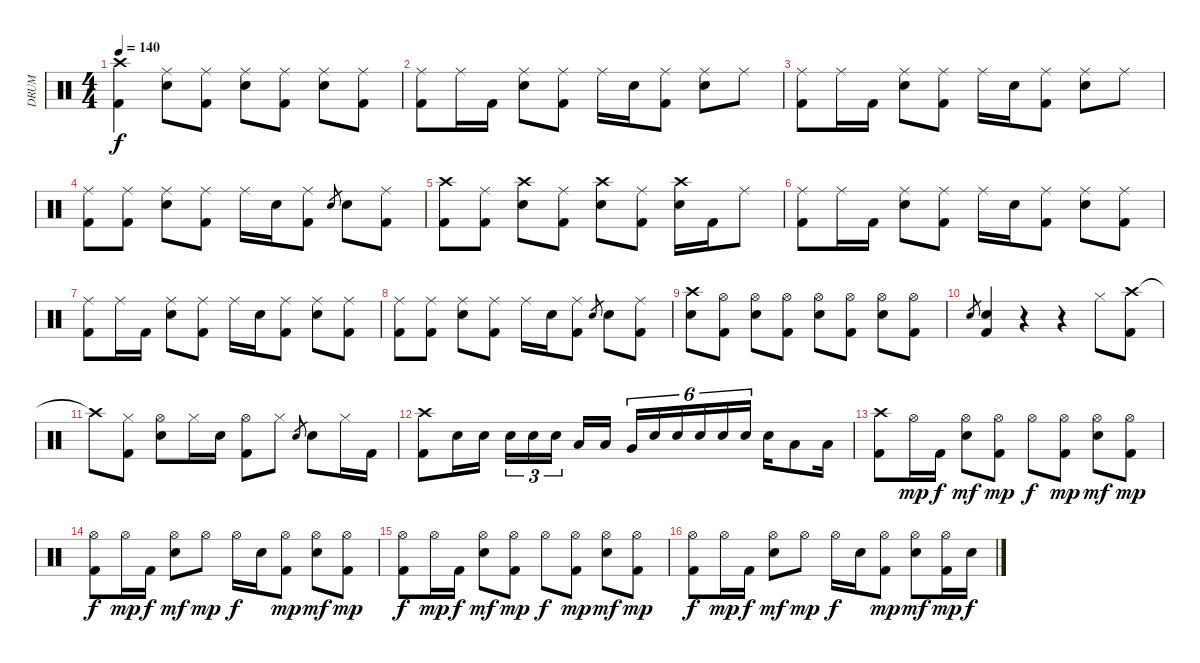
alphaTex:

\track ("DRUM" "DRUM") {instrument percussion}
\staff {score}
\articulation defaults
\ts (4 4)
\tempo 140
\clef neutral
\ks c
("Crash high (hit)" "Kick (hit) 2").4{dy f} ("Ride (middle)" "Electric Snare (hit)").8 ("Ride (middle)" "Kick (hit) 2").8 ("Ride (middle)" "Electric Snare (hit)").8 ("Ride (middle)" "Kick (hit) 2").8 ("Ride (middle)" "Electric Snare (hit)").8 ("Ride (middle)" "Kick (hit) 2").8 |
("Ride (middle)" "Kick (hit) 2").8 "Ride (middle)".16 "Kick (hit) 2".16 ("Ride (middle)" "Electric Snare (hit)").8 ("Ride (middle)" "Kick (hit) 2").8 "Ride (middle)".16 "Electric Snare (hit)".16 ("Ride (middle)" "Kick (hit) 2").8 ("Ride (middle)" "Electric Snare (hit)").8 "Ride (middle)".8 |
("Ride (middle)" "Kick (hit) 2").8 "Ride (middle)".16 "Kick (hit) 2".16 ("Ride (middle)" "Electric Snare (hit)").8 ("Ride (middle)" "Kick (hit) 2").8 "Ride (middle)".16 "Electric Snare (hit)".16 ("Ride (middle)" "Kick (hit) 2").8 ("Ride (middle)" "Electric Snare (hit)").8 "Ride (middle)".8 |
("Ride (middle)" "Kick (hit) 2").8 ("Ride (middle)" "Kick (hit) 2").8 ("Ride (middle)" "Electric Snare (hit)").8 ("Ride (middle)" "Kick (hit) 2").8 "Ride (middle)".16 "Electric Snare (hit)".16 ("Ride (middle)" "Kick (hit) 2").8 "Electric Snare (hit)".8{gr} "Electric Snare (hit)".8 ("Ride (middle)" "Kick (hit) 2").8 |
("Crash high (hit)" "Kick (hit) 2").8 ("Ride (middle)" "Kick (hit) 2").8 ("Crash high (hit)" "Electric Snare (hit)").8 ("Ride (middle)" "Kick (hit) 2").8 ("Crash high (hit)" "Electric Snare (hit)").8 ("Ride (middle)" "Kick (hit) 2").8 ("Crash high (hit)" "Electric Snare (hit)").16 "Kick (hit) 2".16 "Ride (middle)".8 |
("Ride (middle)" "Kick (hit) 2").8 "Ride (middle)".16 "Kick (hit) 2".16 ("Ride (middle)" "Electric Snare (hit)").8 ("Ride (middle)" "Kick (hit) 2").8 "Ride (middle)".16 "Electric Snare (hit)".16 ("Ride (middle)" "Kick (hit) 2").8 ("Ride (middle)" "Electric Snare (hit)").8 ("Ride (middle)" "Kick (hit) 2").8 |
("Ride (middle)" "Kick (hit) 2").8 "Ride (middle)".16 "Kick (hit) 2".16 ("Ride (middle)" "Electric Snare (hit)").8 ("Ride (middle)" "Kick (hit) 2").8 "Ride (middle)".16 "Electric Snare (hit)".16 ("Ride (middle)" "Kick (hit) 2").8 ("Ride (middle)" "Electric Snare (hit)").8 ("Ride (middle)" "Kick (hit) 2").8 |
("Ride (middle)" "Kick (hit) 2").8 ("Ride (middle)" "Kick (hit) 2").8 ("Ride (middle)" "Electric Snare (hit)").8 ("Ride (middle)" "Kick (hit) 2").8 "Ride (middle)".16 "Electric Snare (hit)".16 ("Ride (middle)" "Kick (hit) 2").8 "Electric Snare (hit)".8{gr} "Electric Snare (hit)".8 ("Ride (middle)" "Kick (hit) 2").8 |
("Crash high (hit)" "Electric Snare (hit)").8 ("Hi-Hat (open)" "Kick (hit) 2").8 ("Hi-Hat (open)" "Electric Snare (hit)").8 ("Hi-Hat (open)" "Kick (hit) 2").8 ("Hi-Hat (open)" "Electric Snare (hit)").8 ("Hi-Hat (open)" "Kick (hit) 2").8 ("Hi-Hat (open)" "Electric Snare (hit)").8 ("Hi-Hat (open)" "Kick (hit) 2").8 |
"Electric Snare (hit)".8{gr} ("Electric Snare (hit)" "Kick (hit) 2").4 r.4 r.4 "Hi-Hat (closed)".8 ("Crash high (hit)" "Kick (hit) 2").8 |
"Crash high (hit)"{t}.8 ("Hi-Hat (closed)" "Kick (hit) 2").8 ("Hi-Hat (open)" "Electric Snare (hit)").8 "Hi-Hat (closed)".16 "Electric Snare (hit)".16 ("Hi-Hat (open)" "Kick (hit) 2").8 "Hi-Hat (closed)".8 "Electric Snare (hit)".8{gr} "Electric Snare (hit)".8 "Hi-Hat (closed)".16 "Kick (hit) 2".16 |
("Crash high (hit)" "Kick (hit) 2").8 "Electric Snare (hit)".16 "Electric Snare (hit)".16 "Electric Snare (hit)".16{tu (3 2)} "Electric Snare (hit)".16{tu (3 2)} "Electric Snare (hit)".16{tu (3 2)} "Low Tom (hit)".16 "Low Tom (hit)".16 "Very Low Tom (hit)".16{tu (6 4)} "Electric Snare (hit)".16{tu (6 4)} "Electric Snare (hit)".16{tu (6 4)} "Electric Snare (hit)".16{tu (6 4)} "Electric Snare (hit)".16{tu (6 4)} "Electric Snare (hit)".16{tu (6 4)} "Electric Snare (hit)".16 "Low Floor Tom (hit)".8 "Low Floor Tom (hit)".16 |
("Crash high (hit)" "Kick (hit) 2").8 "Hi-Hat (open)".16{dy mp} "Kick (hit) 2".16{dy f} ("Hi-Hat (open)" "Electric Snare (hit)").8{dy mf} ("Hi-Hat (open)" "Kick (hit) 2").8{dy mp} "Hi-Hat (open)".8{dy f} ("Hi-Hat (open)" "Kick (hit) 2").8{dy mp} ("Hi-Hat (open)" "Electric Snare (hit)").8{dy mf} ("Hi-Hat (open)" "Kick (hit) 2").8{dy mp} |
("Hi-Hat (open)" "Kick (hit) 2").8{dy f} "Hi-Hat (open)".16{dy mp} "Kick (hit) 2".16{dy f} ("Hi-Hat (open)" "Electric Snare (hit)").8{dy mf} "Hi-Hat (open)".8{dy mp} "Hi-Hat (open)".16{dy f} "Electric Snare (hit)".16 ("Hi-Hat (open)" "Kick (hit) 2").8{dy mp} ("Hi-Hat (open)" "Electric Snare (hit)").8{dy mf} ("Hi-Hat (open)" "Kick (hit) 2").8{dy mp} |
("Hi-Hat (open)" "Kick (hit) 2").8{dy f} "Hi-Hat (open)".16{dy mp} "Kick (hit) 2".16{dy f} ("Hi-Hat (open)" "Electric Snare (hit)").8{dy mf} ("Hi-Hat (open)" "Kick (hit) 2").8{dy mp} "Hi-Hat (open)".8{dy f} ("Hi-Hat (open)" "Kick (hit) 2").8{dy mp} ("Hi-Hat (open)" "Electric Snare (hit)").8{dy mf} ("Hi-Hat (open)" "Kick (hit) 2").8{dy mp} |
("Hi-Hat (open)" "Kick (hit) 2").8{dy f} "Hi-Hat (open)".16{dy mp} "Kick (hit) 2".16{dy f} ("Hi-Hat (open)" "Electric Snare (hit)").8{dy mf} "Hi-Hat (open)".8{dy mp} "Hi-Hat (open)".16{dy f} "Electric Snare (hit)".16 ("Hi-Hat (open)" "Kick (hit) 2").8{dy mp} ("Hi-Hat (open)" "Electric Snare (hit)").8{dy mf} ("Hi-Hat (open)" "Kick (hit) 2").16{dy mp} "Electric Snare (hit)".16{dy f}
